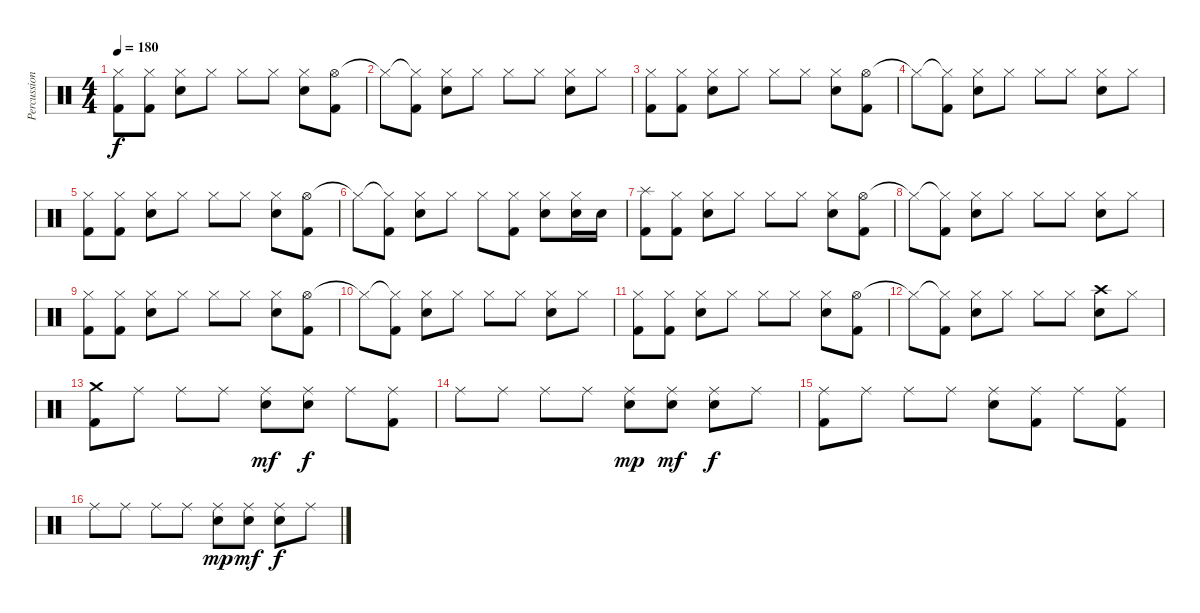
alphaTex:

\track ("Percussion" "Percussion") {instrument percussion}
\staff {score}
\articulation defaults
\ts (4 4)
\tempo 180
\clef neutral
\ks c
("Hi-Hat (closed)" "Kick (hit) 2").8{dy f} ("Hi-Hat (closed)" "Kick (hit) 2").8 ("Hi-Hat (closed)" "Snare (hit) 2").8 "Hi-Hat (closed)".8 "Hi-Hat (closed)".8 "Hi-Hat (closed)".8 ("Hi-Hat (closed)" "Snare (hit) 2").8 ("Hi-Hat (open)" "Kick (hit) 2").8 |
"Hi-Hat (closed)"{t}.8 ("Hi-Hat (closed)"{t} "Kick (hit) 2").8 ("Hi-Hat (closed)" "Snare (hit) 2").8 "Hi-Hat (closed)".8 "Hi-Hat (closed)".8 "Hi-Hat (closed)".8 ("Hi-Hat (closed)" "Snare (hit) 2").8 "Hi-Hat (closed)".8 |
("Hi-Hat (closed)" "Kick (hit) 2").8 ("Hi-Hat (closed)" "Kick (hit) 2").8 ("Hi-Hat (closed)" "Snare (hit) 2").8 "Hi-Hat (closed)".8 "Hi-Hat (closed)".8 "Hi-Hat (closed)".8 ("Hi-Hat (closed)" "Snare (hit) 2").8 ("Hi-Hat (open)" "Kick (hit) 2").8 |
"Hi-Hat (closed)"{t}.8 ("Hi-Hat (closed)"{t} "Kick (hit) 2").8 ("Hi-Hat (closed)" "Snare (hit) 2").8 "Hi-Hat (closed)".8 "Hi-Hat (closed)".8 "Hi-Hat (closed)".8 ("Hi-Hat (closed)" "Snare (hit) 2").8 "Hi-Hat (closed)".8 |
("Hi-Hat (closed)" "Kick (hit) 2").8 ("Hi-Hat (closed)" "Kick (hit) 2").8 ("Hi-Hat (closed)" "Snare (hit) 2").8 "Hi-Hat (closed)".8 "Hi-Hat (closed)".8 "Hi-Hat (closed)".8 ("Hi-Hat (closed)" "Snare (hit) 2").8 ("Hi-Hat (open)" "Kick (hit) 2").8 |
"Hi-Hat (closed)"{t}.8 ("Hi-Hat (closed)"{t} "Kick (hit) 2").8 ("Hi-Hat (closed)" "Snare (hit) 2").8 "Hi-Hat (closed)".8 "Hi-Hat (closed)".8 ("Hi-Hat (closed)" "Kick (hit) 2").8 ("Hi-Hat (closed)" "Snare (hit) 2").8 ("Hi-Hat (closed)" "Snare (hit) 2").16 "Snare (hit) 2".16 |
("Splash (hit)" "Kick (hit) 2").8 ("Hi-Hat (closed)" "Kick (hit) 2").8 ("Hi-Hat (closed)" "Snare (hit) 2").8 "Hi-Hat (closed)".8 "Hi-Hat (closed)".8 "Hi-Hat (closed)".8 ("Hi-Hat (closed)" "Snare (hit) 2").8 ("Hi-Hat (open)" "Kick (hit) 2").8 |
"Hi-Hat (closed)"{t}.8 ("Hi-Hat (closed)"{t} "Kick (hit) 2").8 ("Hi-Hat (closed)" "Snare (hit) 2").8 "Hi-Hat (closed)".8 "Hi-Hat (closed)".8 "Hi-Hat (closed)".8 ("Hi-Hat (closed)" "Snare (hit) 2").8 "Hi-Hat (closed)".8 |
("Hi-Hat (closed)" "Kick (hit) 2").8 ("Hi-Hat (closed)" "Kick (hit) 2").8 ("Hi-Hat (closed)" "Snare (hit) 2").8 "Hi-Hat (closed)".8 "Hi-Hat (closed)".8 "Hi-Hat (closed)".8 ("Hi-Hat (closed)" "Snare (hit) 2").8 ("Hi-Hat (open)" "Kick (hit) 2").8 |
"Hi-Hat (closed)"{t}.8 ("Hi-Hat (closed)"{t} "Kick (hit) 2").8 ("Hi-Hat (closed)" "Snare (hit) 2").8 "Hi-Hat (closed)".8 "Hi-Hat (closed)".8 "Hi-Hat (closed)".8 ("Hi-Hat (closed)" "Snare (hit) 2").8 "Hi-Hat (closed)".8 |
("Hi-Hat (closed)" "Kick (hit) 2").8 ("Hi-Hat (closed)" "Kick (hit) 2").8 ("Hi-Hat (closed)" "Snare (hit) 2").8 "Hi-Hat (closed)".8 "Hi-Hat (closed)".8 "Hi-Hat (closed)".8 ("Hi-Hat (closed)" "Snare (hit) 2").8 ("Hi-Hat (open)" "Kick (hit) 2").8 |
"Hi-Hat (closed)"{t}.8 ("Hi-Hat (closed)"{t} "Kick (hit) 2").8 ("Hi-Hat (closed)" "Snare (hit) 2").8 "Hi-Hat (closed)".8 "Hi-Hat (closed)".8 "Hi-Hat (closed)".8 ("Crash high (hit)" "Snare (hit) 2").8 "Hi-Hat (closed)".8 |
("Crash medium (hit)" "Kick (hit) 2").8 "Ride (middle)".8 "Ride (middle)".8 "Ride (middle)".8 ("Ride (middle)" "Snare (hit) 2").8{dy mf} ("Ride (middle)" "Snare (hit) 2").8{dy f} "Ride (middle)".8 ("Ride (middle)" "Kick (hit) 2").8 |
"Ride (middle)".8 "Ride (middle)".8 "Ride (middle)".8 "Ride (middle)".8 ("Ride (middle)" "Snare (hit) 2").8{dy mp} ("Ride (middle)" "Snare (hit) 2").8{dy mf} ("Ride (middle)" "Snare (hit) 2").8{dy f} "Ride (middle)".8 |
("Ride (middle)" "Kick (hit) 2").8 "Ride (middle)".8 "Ride (middle)".8 "Ride (middle)".8 ("Ride (middle)" "Snare (hit) 2").8 ("Ride (middle)" "Kick (hit) 2").8 "Ride (middle)".8 ("Ride (middle)" "Kick (hit) 2").8 |
"Ride (middle)".8 "Ride (middle)".8 "Ride (middle)".8 "Ride (middle)".8 ("Ride (middle)" "Snare (hit) 2").8{dy mp} ("Ride (middle)" "Snare (hit) 2").8{dy mf} ("Ride (middle)" "Snare (hit) 2").8{dy f} "Ride (middle)".8
